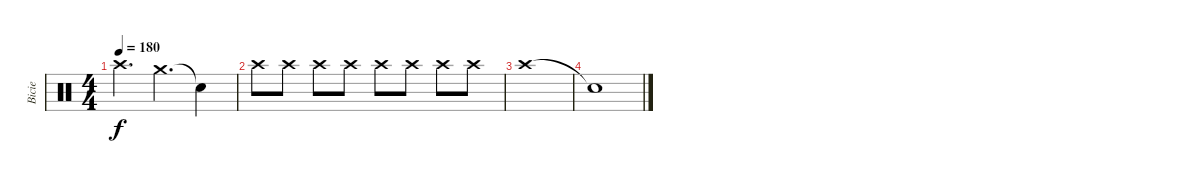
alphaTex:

\track ("Bicie" "Bicie") {instrument percussion}
\staff {score}
\articulation defaults
\ts (4 4)
\tempo 180
\clef neutral
\ks c "Crash high (hit)".4{d dy f} "Crash medium (hit)".4{d} "Snare (hit)"{t}.4
|
"Crash high (hit)".8 "Crash high (hit)".8 "Crash high (hit)".8 "Crash high (hit)".8 "Crash high (hit)".8 "Crash high (hit)".8 "Crash high (hit)".8 "Crash high (hit)".8 |
"Crash high (hit)".1 |
"Snare (hit)"{t}.1
